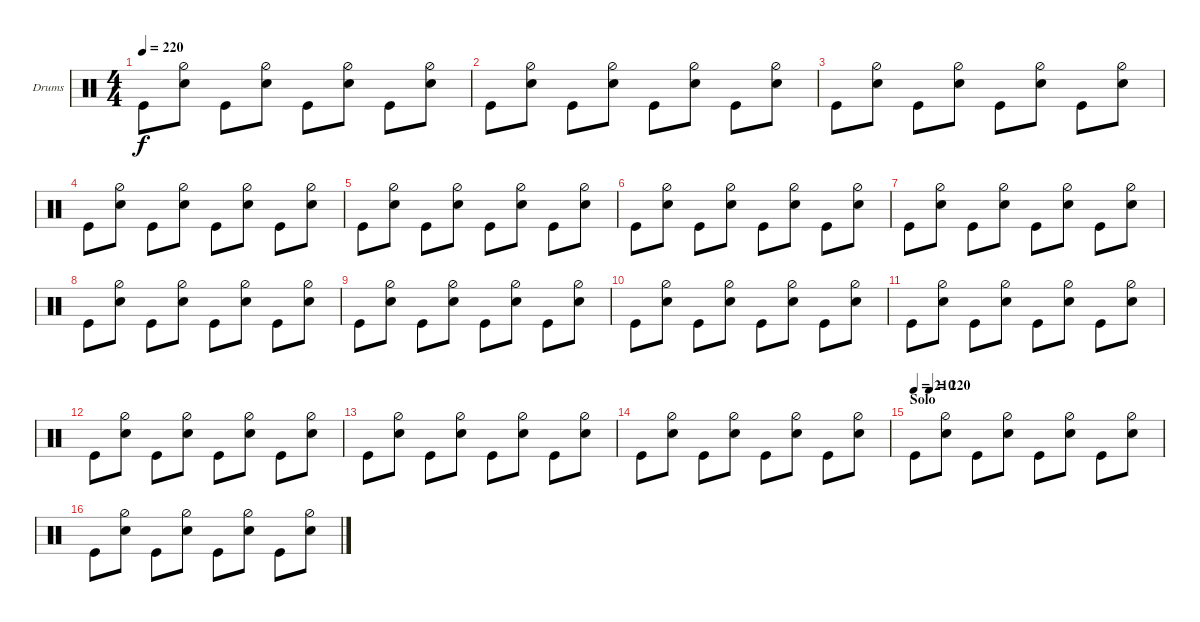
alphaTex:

\defaultSystemsLayout 4
\bracketExtendMode groupsimilarinstruments
\firstSystemTrackNameOrientation horizontal
\otherSystemsTrackNameOrientation horizontal
\track ("Drumkit" "Drums") {instrument percussion}
\staff {score}
\articulation defaults
\ts (4 4)
\tempo 220
\clef neutral
\ks c "Kick (hit)".8{dy f}
("Snare (hit) 2" "Hi-Hat (half)").8 "Kick (hit)".8 ("Snare (hit) 2" "Hi-Hat (half)").8 "Kick (hit)".8 ("Snare (hit) 2" "Hi-Hat (half)").8 "Kick (hit)".8 ("Snare (hit) 2" "Hi-Hat (half)").8 |
"Kick (hit)".8 ("Snare (hit) 2" "Hi-Hat (half)").8 "Kick (hit)".8 ("Snare (hit) 2" "Hi-Hat (half)").8 "Kick (hit)".8 ("Snare (hit) 2" "Hi-Hat (half)").8 "Kick (hit)".8 ("Snare (hit) 2" "Hi-Hat (half)").8 |
"Kick (hit)".8 ("Snare (hit) 2" "Hi-Hat (half)").8 "Kick (hit)".8 ("Snare (hit) 2" "Hi-Hat (half)").8 "Kick (hit)".8 ("Snare (hit) 2" "Hi-Hat (half)").8 "Kick (hit)".8 ("Snare (hit) 2" "Hi-Hat (half)").8 |
"Kick (hit)".8 ("Snare (hit) 2" "Hi-Hat (half)").8 "Kick (hit)".8 ("Snare (hit) 2" "Hi-Hat (half)").8 "Kick (hit)".8 ("Snare (hit) 2" "Hi-Hat (half)").8 "Kick (hit)".8 ("Snare (hit) 2" "Hi-Hat (half)").8 |
"Kick (hit)".8 ("Snare (hit) 2" "Hi-Hat (half)").8 "Kick (hit)".8 ("Snare (hit) 2" "Hi-Hat (half)").8 "Kick (hit)".8 ("Snare (hit) 2" "Hi-Hat (half)").8 "Kick (hit)".8 ("Snare (hit) 2" "Hi-Hat (half)").8 |
"Kick (hit)".8 ("Snare (hit) 2" "Hi-Hat (half)").8 "Kick (hit)".8 ("Snare (hit) 2" "Hi-Hat (half)").8 "Kick (hit)".8 ("Snare (hit) 2" "Hi-Hat (half)").8 "Kick (hit)".8 ("Snare (hit) 2" "Hi-Hat (half)").8 |
"Kick (hit)".8 ("Snare (hit) 2" "Hi-Hat (half)").8 "Kick (hit)".8 ("Snare (hit) 2" "Hi-Hat (half)").8 "Kick (hit)".8 ("Snare (hit) 2" "Hi-Hat (half)").8 "Kick (hit)".8 ("Snare (hit) 2" "Hi-Hat (half)").8 |
"Kick (hit)".8 ("Snare (hit) 2" "Hi-Hat (half)").8 "Kick (hit)".8 ("Snare (hit) 2" "Hi-Hat (half)").8 "Kick (hit)".8 ("Snare (hit) 2" "Hi-Hat (half)").8 "Kick (hit)".8 ("Snare (hit) 2" "Hi-Hat (half)").8 |
"Kick (hit)".8 ("Snare (hit) 2" "Hi-Hat (half)").8 "Kick (hit)".8 ("Snare (hit) 2" "Hi-Hat (half)").8 "Kick (hit)".8 ("Snare (hit) 2" "Hi-Hat (half)").8 "Kick (hit)".8 ("Snare (hit) 2" "Hi-Hat (half)").8 |
"Kick (hit)".8 ("Snare (hit) 2" "Hi-Hat (half)").8 "Kick (hit)".8 ("Snare (hit) 2" "Hi-Hat (half)").8 "Kick (hit)".8 ("Snare (hit) 2" "Hi-Hat (half)").8 "Kick (hit)".8 ("Snare (hit) 2" "Hi-Hat (half)").8 |
"Kick (hit)".8 ("Snare (hit) 2" "Hi-Hat (half)").8 "Kick (hit)".8 ("Snare (hit) 2" "Hi-Hat (half)").8 "Kick (hit)".8 ("Snare (hit) 2" "Hi-Hat (half)").8 "Kick (hit)".8 ("Snare (hit) 2" "Hi-Hat (half)").8 |
"Kick (hit)".8 ("Snare (hit) 2" "Hi-Hat (half)").8 "Kick (hit)".8 ("Snare (hit) 2" "Hi-Hat (half)").8 "Kick (hit)".8 ("Snare (hit) 2" "Hi-Hat (half)").8 "Kick (hit)".8 ("Snare (hit) 2" "Hi-Hat (half)").8 |
"Kick (hit)".8 ("Snare (hit) 2" "Hi-Hat (half)").8 "Kick (hit)".8 ("Snare (hit) 2" "Hi-Hat (half)").8 "Kick (hit)".8 ("Snare (hit) 2" "Hi-Hat (half)").8 "Kick (hit)".8 ("Snare (hit) 2" "Hi-Hat (half)").8 |
"Kick (hit)".8 ("Snare (hit) 2" "Hi-Hat (half)").8 "Kick (hit)".8 ("Snare (hit) 2" "Hi-Hat (half)").8 "Kick (hit)".8 ("Snare (hit) 2" "Hi-Hat (half)").8 "Kick (hit)".8 ("Snare (hit) 2" "Hi-Hat (half)").8 |
\section ("" "Solo")
\tempo 210
\tempo (220 0.0625)
"Kick (hit)".8 ("Snare (hit) 2" "Hi-Hat (half)").8 "Kick (hit)".8 ("Snare (hit) 2" "Hi-Hat (half)").8 "Kick (hit)".8 ("Snare (hit) 2" "Hi-Hat (half)").8 "Kick (hit)".8 ("Snare (hit) 2" "Hi-Hat (half)").8 |
"Kick (hit)".8 ("Snare (hit) 2" "Hi-Hat (half)").8 "Kick (hit)".8 ("Snare (hit) 2" "Hi-Hat (half)").8 "Kick (hit)".8 ("Snare (hit) 2" "Hi-Hat (half)").8 "Kick (hit)".8 ("Snare (hit) 2" "Hi-Hat (half)").8
